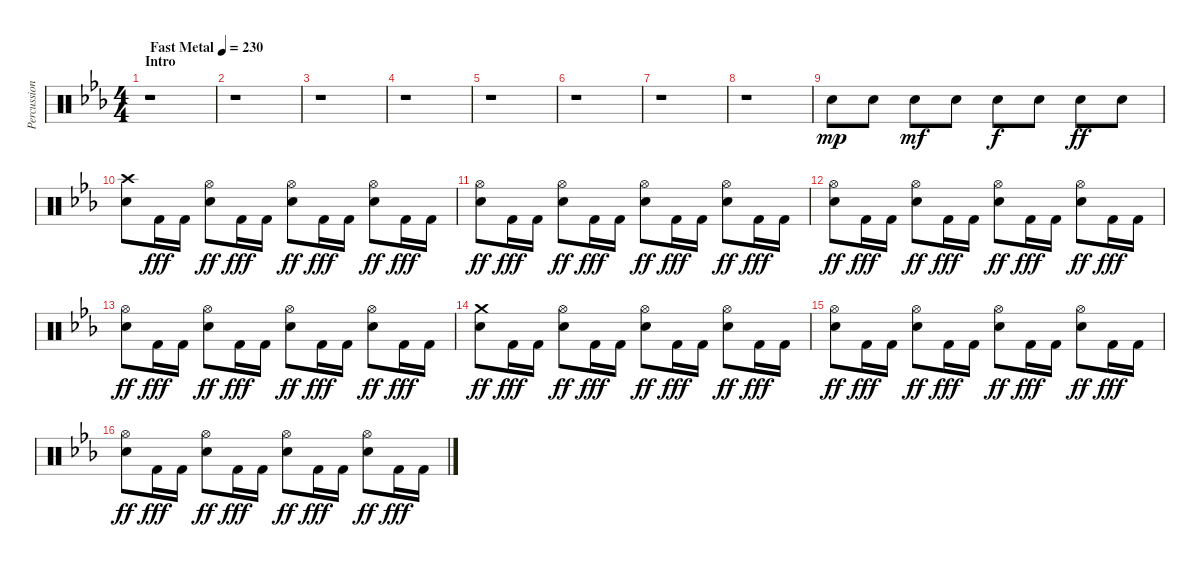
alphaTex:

\track ("Percussion" "Percussion") {instrument percussion}
\staff {score}
\articulation defaults
\ts (4 4)
\section ("" "Intro")
\tempo (230 "Fast Metal")
\clef neutral
\ks cminor
r.1{dy mp} |
r.1 |
r.1 |
r.1 |
r.1 |
r.1 |
r.1 |
r.1 |
"Electric Snare (hit)".8 "Electric Snare (hit)".8 "Electric Snare (hit)".8{dy mf} "Electric Snare (hit)".8 "Electric Snare (hit)".8{dy f} "Electric Snare (hit)".8 "Electric Snare (hit)".8{dy ff} "Electric Snare (hit)".8 |
("Crash high (hit)" "Electric Snare (hit)").8 "Kick (hit) 2".16{dy fff} "Kick (hit) 2".16 ("Hi-Hat (open)" "Electric Snare (hit)").8{dy ff} "Kick (hit) 2".16{dy fff} "Kick (hit) 2".16 ("Hi-Hat (open)" "Electric Snare (hit)").8{dy ff} "Kick (hit) 2".16{dy fff} "Kick (hit) 2".16 ("Hi-Hat (open)" "Electric Snare (hit)").8{dy ff} "Kick (hit) 2".16{dy fff} "Kick (hit) 2".16 |
("Hi-Hat (open)" "Electric Snare (hit)").8{dy ff} "Kick (hit) 2".16{dy fff} "Kick (hit) 2".16 ("Hi-Hat (open)" "Electric Snare (hit)").8{dy ff} "Kick (hit) 2".16{dy fff} "Kick (hit) 2".16 ("Hi-Hat (open)" "Electric Snare (hit)").8{dy ff} "Kick (hit) 2".16{dy fff} "Kick (hit) 2".16 ("Hi-Hat (open)" "Electric Snare (hit)").8{dy ff} "Kick (hit) 2".16{dy fff} "Kick (hit) 2".16 |
("Hi-Hat (open)" "Electric Snare (hit)").8{dy ff} "Kick (hit) 2".16{dy fff} "Kick (hit) 2".16 ("Hi-Hat (open)" "Electric Snare (hit)").8{dy ff} "Kick (hit) 2".16{dy fff} "Kick (hit) 2".16 ("Hi-Hat (open)" "Electric Snare (hit)").8{dy ff} "Kick (hit) 2".16{dy fff} "Kick (hit) 2".16 ("Hi-Hat (open)" "Electric Snare (hit)").8{dy ff} "Kick (hit) 2".16{dy fff} "Kick (hit) 2".16 |
("Hi-Hat (open)" "Electric Snare (hit)").8{dy ff} "Kick (hit) 2".16{dy fff} "Kick (hit) 2".16 ("Hi-Hat (open)" "Electric Snare (hit)").8{dy ff} "Kick (hit) 2".16{dy fff} "Kick (hit) 2".16 ("Hi-Hat (open)" "Electric Snare (hit)").8{dy ff} "Kick (hit) 2".16{dy fff} "Kick (hit) 2".16 ("Hi-Hat (open)" "Electric Snare (hit)").8{dy ff} "Kick (hit) 2".16{dy fff} "Kick (hit) 2".16 |
("Crash medium (hit)" "Electric Snare (hit)").8{dy ff} "Kick (hit) 2".16{dy fff} "Kick (hit) 2".16 ("Hi-Hat (open)" "Electric Snare (hit)").8{dy ff} "Kick (hit) 2".16{dy fff} "Kick (hit) 2".16 ("Hi-Hat (open)" "Electric Snare (hit)").8{dy ff} "Kick (hit) 2".16{dy fff} "Kick (hit) 2".16 ("Hi-Hat (open)" "Electric Snare (hit)").8{dy ff} "Kick (hit) 2".16{dy fff} "Kick (hit) 2".16 |
("Hi-Hat (open)" "Electric Snare (hit)").8{dy ff} "Kick (hit) 2".16{dy fff} "Kick (hit) 2".16 ("Hi-Hat (open)" "Electric Snare (hit)").8{dy ff} "Kick (hit) 2".16{dy fff} "Kick (hit) 2".16 ("Hi-Hat (open)" "Electric Snare (hit)").8{dy ff} "Kick (hit) 2".16{dy fff} "Kick (hit) 2".16 ("Hi-Hat (open)" "Electric Snare (hit)").8{dy ff} "Kick (hit) 2".16{dy fff} "Kick (hit) 2".16 |
("Hi-Hat (open)" "Electric Snare (hit)").8{dy ff} "Kick (hit) 2".16{dy fff} "Kick (hit) 2".16 ("Hi-Hat (open)" "Electric Snare (hit)").8{dy ff} "Kick (hit) 2".16{dy fff} "Kick (hit) 2".16 ("Hi-Hat (open)" "Electric Snare (hit)").8{dy ff} "Kick (hit) 2".16{dy fff} "Kick (hit) 2".16 ("Hi-Hat (open)" "Electric Snare (hit)").8{dy ff} "Kick (hit) 2".16{dy fff} "Kick (hit) 2".16
